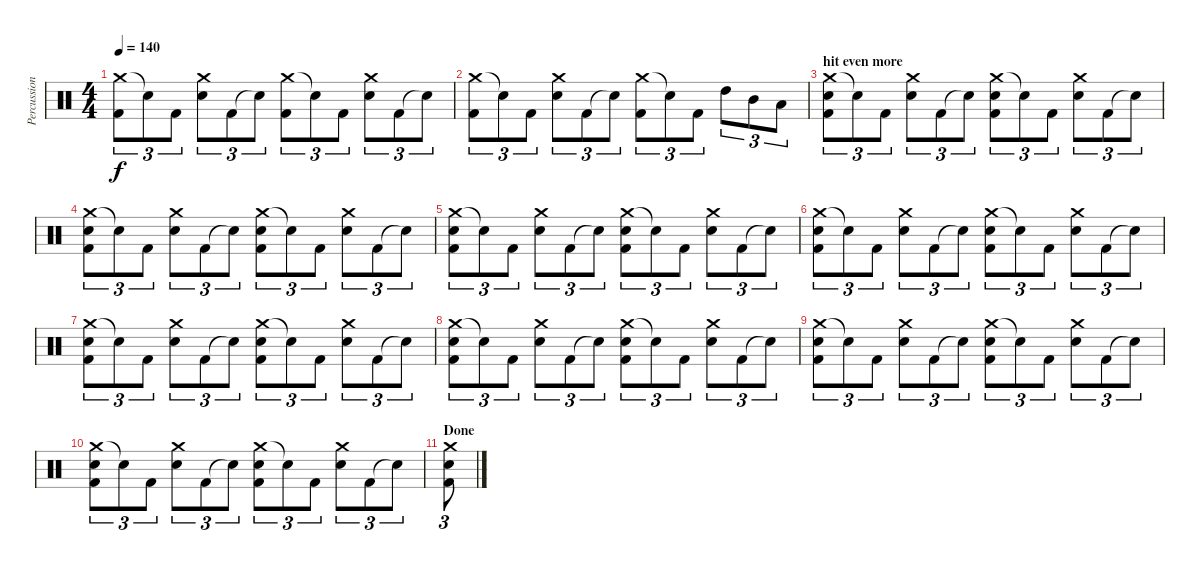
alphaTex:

\track ("Percussion" "Percussion") {instrument percussion}
\staff {score}
\articulation defaults
\ts (4 4)
\tempo 140
\clef neutral
\ks c
("Crash medium (hit)" "Kick (hit) 2").8{tu (3 2) dy f} "Snare (hit)"{t}.8{tu (3 2)} "Kick (hit) 2".8{tu (3 2)} ("Crash medium (hit)" "Electric Snare (hit)").8{tu (3 2)} "Kick (hit) 2".8{tu (3 2)} "Snare (hit)"{t}.8{tu (3 2)} ("Crash medium (hit)" "Kick (hit) 2").8{tu (3 2)} "Snare (hit)"{t}.8{tu (3 2)} "Kick (hit) 2".8{tu (3 2)} ("Crash medium (hit)" "Electric Snare (hit)").8{tu (3 2)} "Kick (hit) 2".8{tu (3 2)} "Snare (hit)"{t}.8{tu (3 2)} |
("Crash medium (hit)" "Kick (hit) 2").8{tu (3 2)} "Snare (hit)"{t}.8{tu (3 2)} "Kick (hit) 2".8{tu (3 2)} ("Crash medium (hit)" "Electric Snare (hit)").8{tu (3 2)} "Kick (hit) 2".8{tu (3 2)} "Snare (hit)"{t}.8{tu (3 2)} ("Crash medium (hit)" "Kick (hit) 2").8{tu (3 2)} "Snare (hit)"{t}.8{tu (3 2)} "Kick (hit) 2".8{tu (3 2)} "High Tom (hit)".8{tu (3 2)} "Mid Tom (hit)".8{tu (3 2)} "Low Tom (hit)".8{tu (3 2)} |
\section ("" "hit even more")
("Crash medium (hit)" "Electric Snare (hit)" "Kick (hit) 2").8{tu (3 2)} "Snare (hit)"{t}.8{tu (3 2)} "Kick (hit) 2".8{tu (3 2)} ("Crash medium (hit)" "Electric Snare (hit)").8{tu (3 2)} "Kick (hit) 2".8{tu (3 2)} "Snare (hit)"{t}.8{tu (3 2)} ("Crash medium (hit)" "Electric Snare (hit)" "Kick (hit) 2").8{tu (3 2)} "Snare (hit)"{t}.8{tu (3 2)} "Kick (hit) 2".8{tu (3 2)} ("Crash medium (hit)" "Electric Snare (hit)").8{tu (3 2)} "Kick (hit) 2".8{tu (3 2)} "Snare (hit)"{t}.8{tu (3 2)} |
("Crash medium (hit)" "Electric Snare (hit)" "Kick (hit) 2").8{tu (3 2)} "Snare (hit)"{t}.8{tu (3 2)} "Kick (hit) 2".8{tu (3 2)} ("Crash medium (hit)" "Electric Snare (hit)").8{tu (3 2)} "Kick (hit) 2".8{tu (3 2)} "Snare (hit)"{t}.8{tu (3 2)} ("Crash medium (hit)" "Electric Snare (hit)" "Kick (hit) 2").8{tu (3 2)} "Snare (hit)"{t}.8{tu (3 2)} "Kick (hit) 2".8{tu (3 2)} ("Crash medium (hit)" "Electric Snare (hit)").8{tu (3 2)} "Kick (hit) 2".8{tu (3 2)} "Snare (hit)"{t}.8{tu (3 2)} |
("Crash medium (hit)" "Electric Snare (hit)" "Kick (hit) 2").8{tu (3 2)} "Snare (hit)"{t}.8{tu (3 2)} "Kick (hit) 2".8{tu (3 2)} ("Crash medium (hit)" "Electric Snare (hit)").8{tu (3 2)} "Kick (hit) 2".8{tu (3 2)} "Snare (hit)"{t}.8{tu (3 2)} ("Crash medium (hit)" "Electric Snare (hit)" "Kick (hit) 2").8{tu (3 2)} "Snare (hit)"{t}.8{tu (3 2)} "Kick (hit) 2".8{tu (3 2)} ("Crash medium (hit)" "Electric Snare (hit)").8{tu (3 2)} "Kick (hit) 2".8{tu (3 2)} "Snare (hit)"{t}.8{tu (3 2)} |
("Crash medium (hit)" "Electric Snare (hit)" "Kick (hit) 2").8{tu (3 2)} "Snare (hit)"{t}.8{tu (3 2)} "Kick (hit) 2".8{tu (3 2)} ("Crash medium (hit)" "Electric Snare (hit)").8{tu (3 2)} "Kick (hit) 2".8{tu (3 2)} "Snare (hit)"{t}.8{tu (3 2)} ("Crash medium (hit)" "Electric Snare (hit)" "Kick (hit) 2").8{tu (3 2)} "Snare (hit)"{t}.8{tu (3 2)} "Kick (hit) 2".8{tu (3 2)} ("Crash medium (hit)" "Electric Snare (hit)").8{tu (3 2)} "Kick (hit) 2".8{tu (3 2)} "Snare (hit)"{t}.8{tu (3 2)} |
("Crash medium (hit)" "Electric Snare (hit)" "Kick (hit) 2").8{tu (3 2)} "Snare (hit)"{t}.8{tu (3 2)} "Kick (hit) 2".8{tu (3 2)} ("Crash medium (hit)" "Electric Snare (hit)").8{tu (3 2)} "Kick (hit) 2".8{tu (3 2)} "Snare (hit)"{t}.8{tu (3 2)} ("Crash medium (hit)" "Electric Snare (hit)" "Kick (hit) 2").8{tu (3 2)} "Snare (hit)"{t}.8{tu (3 2)} "Kick (hit) 2".8{tu (3 2)} ("Crash medium (hit)" "Electric Snare (hit)").8{tu (3 2)} "Kick (hit) 2".8{tu (3 2)} "Snare (hit)"{t}.8{tu (3 2)} |
("Crash medium (hit)" "Electric Snare (hit)" "Kick (hit) 2").8{tu (3 2)} "Snare (hit)"{t}.8{tu (3 2)} "Kick (hit) 2".8{tu (3 2)} ("Crash medium (hit)" "Electric Snare (hit)").8{tu (3 2)} "Kick (hit) 2".8{tu (3 2)} "Snare (hit)"{t}.8{tu (3 2)} ("Crash medium (hit)" "Electric Snare (hit)" "Kick (hit) 2").8{tu (3 2)} "Snare (hit)"{t}.8{tu (3 2)} "Kick (hit) 2".8{tu (3 2)} ("Crash medium (hit)" "Electric Snare (hit)").8{tu (3 2)} "Kick (hit) 2".8{tu (3 2)} "Snare (hit)"{t}.8{tu (3 2)} |
("Crash medium (hit)" "Electric Snare (hit)" "Kick (hit) 2").8{tu (3 2)} "Snare (hit)"{t}.8{tu (3 2)} "Kick (hit) 2".8{tu (3 2)} ("Crash medium (hit)" "Electric Snare (hit)").8{tu (3 2)} "Kick (hit) 2".8{tu (3 2)} "Snare (hit)"{t}.8{tu (3 2)} ("Crash medium (hit)" "Electric Snare (hit)" "Kick (hit) 2").8{tu (3 2)} "Snare (hit)"{t}.8{tu (3 2)} "Kick (hit) 2".8{tu (3 2)} ("Crash medium (hit)" "Electric Snare (hit)").8{tu (3 2)} "Kick (hit) 2".8{tu (3 2)} "Snare (hit)"{t}.8{tu (3 2)} |
("Crash medium (hit)" "Electric Snare (hit)" "Kick (hit) 2").8{tu (3 2)} "Snare (hit)"{t}.8{tu (3 2)} "Kick (hit) 2".8{tu (3 2)} ("Crash medium (hit)" "Electric Snare (hit)").8{tu (3 2)} "Kick (hit) 2".8{tu (3 2)} "Snare (hit)"{t}.8{tu (3 2)} ("Crash medium (hit)" "Electric Snare (hit)" "Kick (hit) 2").8{tu (3 2)} "Snare (hit)"{t}.8{tu (3 2)} "Kick (hit) 2".8{tu (3 2)} ("Crash medium (hit)" "Electric Snare (hit)").8{tu (3 2)} "Kick (hit) 2".8{tu (3 2)} "Snare (hit)"{t}.8{tu (3 2)} |
\section ("" "Done")
("Crash medium (hit)" "Electric Snare (hit)" "Kick (hit) 2").8{tu (3 2)}
